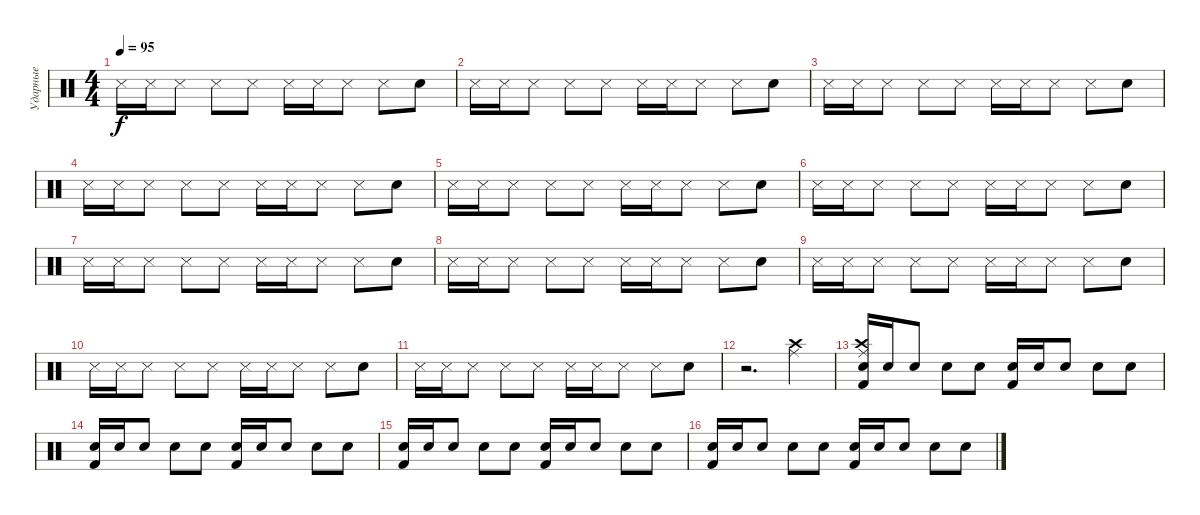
\track ("Ударные" "Ударные") {instrument percussion}
\staff {score}
\articulation defaults
\ts (4 4)
\tempo 95
\clef neutral
\ks c "Metronome (hit)".16{dy f} "Metronome (hit)".16 "Metronome (hit)".8 "Metronome (hit)".8 "Metronome (hit)".8 "Metronome (hit)".16 "Metronome (hit)".16 "Metronome (hit)".8 "Metronome (hit)".8 "Snare (hit)"{x}.8
|
"Metronome (hit)".16 "Metronome (hit)".16 "Metronome (hit)".8 "Metronome (hit)".8 "Metronome (hit)".8 "Metronome (hit)".16 "Metronome (hit)".16 "Metronome (hit)".8 "Metronome (hit)".8 "Snare (hit)"{x}.8 |
"Metronome (hit)".16 "Metronome (hit)".16 "Metronome (hit)".8 "Metronome (hit)".8 "Metronome (hit)".8 "Metronome (hit)".16 "Metronome (hit)".16 "Metronome (hit)".8 "Metronome (hit)".8 "Snare (hit)"{x}.8 |
"Metronome (hit)".16 "Metronome (hit)".16 "Metronome (hit)".8 "Metronome (hit)".8 "Metronome (hit)".8 "Metronome (hit)".16 "Metronome (hit)".16 "Metronome (hit)".8 "Metronome (hit)".8 "Snare (hit)"{x}.8 |
"Metronome (hit)".16 "Metronome (hit)".16 "Metronome (hit)".8 "Metronome (hit)".8 "Metronome (hit)".8 "Metronome (hit)".16 "Metronome (hit)".16 "Metronome (hit)".8 "Metronome (hit)".8 "Snare (hit)"{x}.8 |
"Metronome (hit)".16 "Metronome (hit)".16 "Metronome (hit)".8 "Metronome (hit)".8 "Metronome (hit)".8 "Metronome (hit)".16 "Metronome (hit)".16 "Metronome (hit)".8 "Metronome (hit)".8 "Snare (hit)"{x}.8 |
"Metronome (hit)".16 "Metronome (hit)".16 "Metronome (hit)".8 "Metronome (hit)".8 "Metronome (hit)".8 "Metronome (hit)".16 "Metronome (hit)".16 "Metronome (hit)".8 "Metronome (hit)".8 "Snare (hit)"{x}.8 |
"Metronome (hit)".16 "Metronome (hit)".16 "Metronome (hit)".8 "Metronome (hit)".8 "Metronome (hit)".8 "Metronome (hit)".16 "Metronome (hit)".16 "Metronome (hit)".8 "Metronome (hit)".8 "Snare (hit)"{x}.8 |
"Metronome (hit)".16 "Metronome (hit)".16 "Metronome (hit)".8 "Metronome (hit)".8 "Metronome (hit)".8 "Metronome (hit)".16 "Metronome (hit)".16 "Metronome (hit)".8 "Metronome (hit)".8 "Snare (hit)"{x}.8 |
"Metronome (hit)".16 "Metronome (hit)".16 "Metronome (hit)".8 "Metronome (hit)".8 "Metronome (hit)".8 "Metronome (hit)".16 "Metronome (hit)".16 "Metronome (hit)".8 "Metronome (hit)".8 "Snare (hit)"{x}.8 |
"Metronome (hit)".16 "Metronome (hit)".16 "Metronome (hit)".8 "Metronome (hit)".8 "Metronome (hit)".8 "Metronome (hit)".16 "Metronome (hit)".16 "Metronome (hit)".8 "Metronome (hit)".8 "Snare (hit)"{x}.8 |
r.2{d} ("Ride (middle)" "Crash high (hit)").4 |
("Ride (middle)" "Snare (hit) 2" "Crash high (hit)" "Kick (hit) 2").16 "Snare (hit) 2".16 "Snare (hit) 2".8 "Snare (hit) 2".8 "Snare (hit) 2".8 ("Snare (hit) 2" "Kick (hit) 2").16 "Snare (hit) 2".16 "Snare (hit) 2".8 "Snare (hit) 2".8 "Snare (hit)"{x}.8 |
("Snare (hit) 2" "Kick (hit) 2").16 "Snare (hit) 2".16 "Snare (hit) 2".8 "Snare (hit) 2".8 "Snare (hit) 2".8 ("Snare (hit) 2" "Kick (hit) 2").16 "Snare (hit) 2".16 "Snare (hit) 2".8 "Snare (hit) 2".8 "Snare (hit)"{x}.8 |
("Snare (hit) 2" "Kick (hit) 2").16 "Snare (hit) 2".16 "Snare (hit) 2".8 "Snare (hit) 2".8 "Snare (hit) 2".8 ("Snare (hit) 2" "Kick (hit) 2").16 "Snare (hit) 2".16 "Snare (hit) 2".8 "Snare (hit) 2".8 "Snare (hit)"{x}.8 |
("Snare (hit) 2" "Kick (hit) 2").16 "Snare (hit) 2".16 "Snare (hit) 2".8 "Snare (hit) 2".8 "Snare (hit) 2".8 ("Snare (hit) 2" "Kick (hit) 2").16 "Snare (hit) 2".16 "Snare (hit) 2".8 "Snare (hit) 2".8 "Snare (hit)"{x}.8
